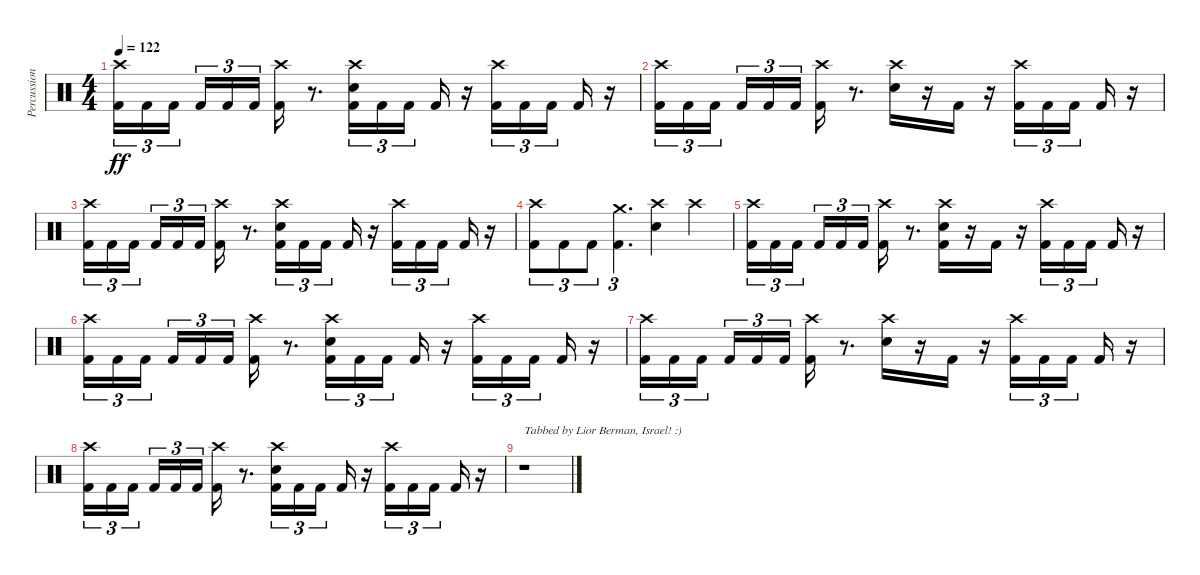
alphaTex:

\track ("Percussion" "Percussion") {instrument percussion}
\staff {score}
\articulation defaults
\ts (4 4)
\tempo 122
\clef neutral
\ks c
("Crash high (hit)" "Kick (hit) 2").16{tu (3 2) dy ff} "Kick (hit) 2".16{tu (3 2)} "Kick (hit) 2".16{tu (3 2) beam splitsecondary} "Kick (hit) 2".16{tu (3 2)} "Kick (hit) 2".16{tu (3 2)} "Kick (hit) 2".16{tu (3 2)} ("Crash high (hit)" "Kick (hit) 2").16 r.8{d} ("Crash high (hit)" "Electric Snare (hit)" "Kick (hit) 2").16{tu (3 2)} "Kick (hit) 2".16{tu (3 2)} "Kick (hit) 2".16{tu (3 2) beam splitsecondary} "Kick (hit) 2".16 r.16 ("Crash high (hit)" "Kick (hit) 2").16{tu (3 2)} "Kick (hit) 2".16{tu (3 2)} "Kick (hit) 2".16{tu (3 2) beam splitsecondary} "Kick (hit) 2".16 r.16 |
("Crash high (hit)" "Kick (hit) 2").16{tu (3 2)} "Kick (hit) 2".16{tu (3 2)} "Kick (hit) 2".16{tu (3 2) beam splitsecondary} "Kick (hit) 2".16{tu (3 2)} "Kick (hit) 2".16{tu (3 2)} "Kick (hit) 2".16{tu (3 2)} ("Crash high (hit)" "Kick (hit) 2").16 r.8{d} ("Crash high (hit)" "Electric Snare (hit)").16 r.16 "Kick (hit) 2".16 r.16 ("Crash high (hit)" "Kick (hit) 2").16{tu (3 2)} "Kick (hit) 2".16{tu (3 2)} "Kick (hit) 2".16{tu (3 2) beam splitsecondary} "Kick (hit) 2".16 r.16 |
("Crash high (hit)" "Kick (hit) 2").16{tu (3 2)} "Kick (hit) 2".16{tu (3 2)} "Kick (hit) 2".16{tu (3 2) beam splitsecondary} "Kick (hit) 2".16{tu (3 2)} "Kick (hit) 2".16{tu (3 2)} "Kick (hit) 2".16{tu (3 2)} ("Crash high (hit)" "Kick (hit) 2").16 r.8{d} ("Crash high (hit)" "Electric Snare (hit)" "Kick (hit) 2").16{tu (3 2)} "Kick (hit) 2".16{tu (3 2)} "Kick (hit) 2".16{tu (3 2) beam splitsecondary} "Kick (hit) 2".16 r.16 ("Crash high (hit)" "Kick (hit) 2").16{tu (3 2)} "Kick (hit) 2".16{tu (3 2)} "Kick (hit) 2".16{tu (3 2) beam splitsecondary} "Kick (hit) 2".16 r.16 |
("Crash high (hit)" "Kick (hit) 2").8{tu (3 2)} "Kick (hit) 2".8{tu (3 2)} "Kick (hit) 2".8{tu (3 2)} ("Crash medium (hit)" "Kick (hit) 2").4{d tu (3 2)} ("Crash high (hit)" "Electric Snare (hit)").4 "Crash high (hit)".4 |
("Crash high (hit)" "Kick (hit) 2").16{tu (3 2)} "Kick (hit) 2".16{tu (3 2)} "Kick (hit) 2".16{tu (3 2) beam splitsecondary} "Kick (hit) 2".16{tu (3 2)} "Kick (hit) 2".16{tu (3 2)} "Kick (hit) 2".16{tu (3 2)} ("Crash high (hit)" "Kick (hit) 2").16 r.8{d} ("Crash high (hit)" "Electric Snare (hit)" "Kick (hit) 2").16 r.16 "Kick (hit) 2".16 r.16 ("Crash high (hit)" "Kick (hit) 2").16{tu (3 2)} "Kick (hit) 2".16{tu (3 2)} "Kick (hit) 2".16{tu (3 2) beam splitsecondary} "Kick (hit) 2".16 r.16 |
("Crash high (hit)" "Kick (hit) 2").16{tu (3 2)} "Kick (hit) 2".16{tu (3 2)} "Kick (hit) 2".16{tu (3 2) beam splitsecondary} "Kick (hit) 2".16{tu (3 2)} "Kick (hit) 2".16{tu (3 2)} "Kick (hit) 2".16{tu (3 2)} ("Crash high (hit)" "Kick (hit) 2").16 r.8{d} ("Crash high (hit)" "Electric Snare (hit)" "Kick (hit) 2").16{tu (3 2)} "Kick (hit) 2".16{tu (3 2)} "Kick (hit) 2".16{tu (3 2) beam splitsecondary} "Kick (hit) 2".16 r.16 ("Crash high (hit)" "Kick (hit) 2").16{tu (3 2)} "Kick (hit) 2".16{tu (3 2)} "Kick (hit) 2".16{tu (3 2) beam splitsecondary} "Kick (hit) 2".16 r.16 |
("Crash high (hit)" "Kick (hit) 2").16{tu (3 2)} "Kick (hit) 2".16{tu (3 2)} "Kick (hit) 2".16{tu (3 2) beam splitsecondary} "Kick (hit) 2".16{tu (3 2)} "Kick (hit) 2".16{tu (3 2)} "Kick (hit) 2".16{tu (3 2)} ("Crash high (hit)" "Kick (hit) 2").16 r.8{d} ("Crash high (hit)" "Electric Snare (hit)").16 r.16 "Kick (hit) 2".16 r.16 ("Crash high (hit)" "Kick (hit) 2").16{tu (3 2)} "Kick (hit) 2".16{tu (3 2)} "Kick (hit) 2".16{tu (3 2) beam splitsecondary} "Kick (hit) 2".16 r.16 |
("Crash high (hit)" "Kick (hit) 2").16{tu (3 2)} "Kick (hit) 2".16{tu (3 2)} "Kick (hit) 2".16{tu (3 2) beam splitsecondary} "Kick (hit) 2".16{tu (3 2)} "Kick (hit) 2".16{tu (3 2)} "Kick (hit) 2".16{tu (3 2)} ("Crash high (hit)" "Kick (hit) 2").16 r.8{d} ("Crash high (hit)" "Electric Snare (hit)" "Kick (hit) 2").16{tu (3 2)} "Kick (hit) 2".16{tu (3 2)} "Kick (hit) 2".16{tu (3 2) beam splitsecondary} "Kick (hit) 2".16 r.16 ("Crash high (hit)" "Kick (hit) 2").16{tu (3 2)} "Kick (hit) 2".16{tu (3 2)} "Kick (hit) 2".16{tu (3 2) beam splitsecondary} "Kick (hit) 2".16 r.16 |
r.1{txt "Tabbed by Lior Berman, Israel! :)"}
